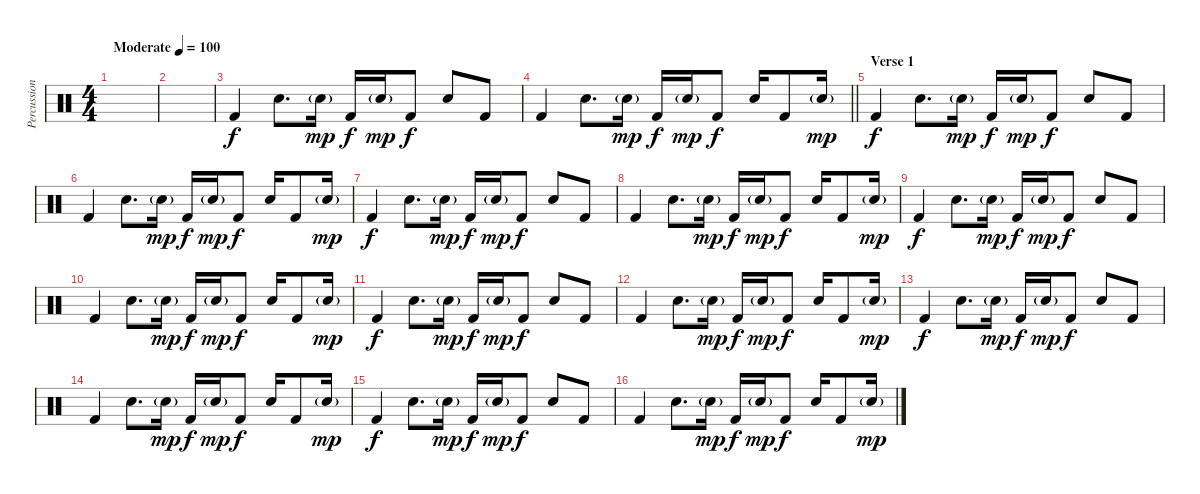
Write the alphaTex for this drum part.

\track ("Percussion" "Percussion") {instrument percussion}
\staff {score}
\articulation defaults
\ts (4 4)
\tempo (100 "Moderate")
\clef neutral
\ks c
|
|
"Kick (hit) 2".4 "Snare (hit) 2".8{d} "Snare (hit) 2"{g}.16{dy mp} "Kick (hit) 2".16{dy f} "Snare (hit) 2"{g}.16{dy mp} "Kick (hit) 2".8{dy f} "Snare (hit) 2".8 "Kick (hit) 2".8 |
\barLineRight lightlight "Kick (hit) 2".4 "Snare (hit) 2".8{d} "Snare (hit) 2"{g}.16{dy mp} "Kick (hit) 2".16{dy f} "Snare (hit) 2"{g}.16{dy mp} "Kick (hit) 2".8{dy f} "Snare (hit) 2".16 "Kick (hit) 2".8 "Snare (hit) 2"{g}.16{dy mp}
|
\section ("" "Verse 1")
"Kick (hit) 2".4{dy f} "Snare (hit) 2".8{d} "Snare (hit) 2"{g}.16{dy mp} "Kick (hit) 2".16{dy f} "Snare (hit) 2"{g}.16{dy mp} "Kick (hit) 2".8{dy f} "Snare (hit) 2".8 "Kick (hit) 2".8 |
"Kick (hit) 2".4 "Snare (hit) 2".8{d} "Snare (hit) 2"{g}.16{dy mp} "Kick (hit) 2".16{dy f} "Snare (hit) 2"{g}.16{dy mp} "Kick (hit) 2".8{dy f} "Snare (hit) 2".16 "Kick (hit) 2".8 "Snare (hit) 2"{g}.16{dy mp} |
"Kick (hit) 2".4{dy f} "Snare (hit) 2".8{d} "Snare (hit) 2"{g}.16{dy mp} "Kick (hit) 2".16{dy f} "Snare (hit) 2"{g}.16{dy mp} "Kick (hit) 2".8{dy f} "Snare (hit) 2".8 "Kick (hit) 2".8 |
"Kick (hit) 2".4 "Snare (hit) 2".8{d} "Snare (hit) 2"{g}.16{dy mp} "Kick (hit) 2".16{dy f} "Snare (hit) 2"{g}.16{dy mp} "Kick (hit) 2".8{dy f} "Snare (hit) 2".16 "Kick (hit) 2".8 "Snare (hit) 2"{g}.16{dy mp} |
"Kick (hit) 2".4{dy f} "Snare (hit) 2".8{d} "Snare (hit) 2"{g}.16{dy mp} "Kick (hit) 2".16{dy f} "Snare (hit) 2"{g}.16{dy mp} "Kick (hit) 2".8{dy f} "Snare (hit) 2".8 "Kick (hit) 2".8 |
"Kick (hit) 2".4 "Snare (hit) 2".8{d} "Snare (hit) 2"{g}.16{dy mp} "Kick (hit) 2".16{dy f} "Snare (hit) 2"{g}.16{dy mp} "Kick (hit) 2".8{dy f} "Snare (hit) 2".16 "Kick (hit) 2".8 "Snare (hit) 2"{g}.16{dy mp} |
"Kick (hit) 2".4{dy f} "Snare (hit) 2".8{d} "Snare (hit) 2"{g}.16{dy mp} "Kick (hit) 2".16{dy f} "Snare (hit) 2"{g}.16{dy mp} "Kick (hit) 2".8{dy f} "Snare (hit) 2".8 "Kick (hit) 2".8 |
"Kick (hit) 2".4 "Snare (hit) 2".8{d} "Snare (hit) 2"{g}.16{dy mp} "Kick (hit) 2".16{dy f} "Snare (hit) 2"{g}.16{dy mp} "Kick (hit) 2".8{dy f} "Snare (hit) 2".16 "Kick (hit) 2".8 "Snare (hit) 2"{g}.16{dy mp} |
"Kick (hit) 2".4{dy f} "Snare (hit) 2".8{d} "Snare (hit) 2"{g}.16{dy mp} "Kick (hit) 2".16{dy f} "Snare (hit) 2"{g}.16{dy mp} "Kick (hit) 2".8{dy f} "Snare (hit) 2".8 "Kick (hit) 2".8 |
"Kick (hit) 2".4 "Snare (hit) 2".8{d} "Snare (hit) 2"{g}.16{dy mp} "Kick (hit) 2".16{dy f} "Snare (hit) 2"{g}.16{dy mp} "Kick (hit) 2".8{dy f} "Snare (hit) 2".16 "Kick (hit) 2".8 "Snare (hit) 2"{g}.16{dy mp} |
"Kick (hit) 2".4{dy f} "Snare (hit) 2".8{d} "Snare (hit) 2"{g}.16{dy mp} "Kick (hit) 2".16{dy f} "Snare (hit) 2"{g}.16{dy mp} "Kick (hit) 2".8{dy f} "Snare (hit) 2".8 "Kick (hit) 2".8 |
"Kick (hit) 2".4 "Snare (hit) 2".8{d} "Snare (hit) 2"{g}.16{dy mp} "Kick (hit) 2".16{dy f} "Snare (hit) 2"{g}.16{dy mp} "Kick (hit) 2".8{dy f} "Snare (hit) 2".16 "Kick (hit) 2".8 "Snare (hit) 2"{g}.16{dy mp}
